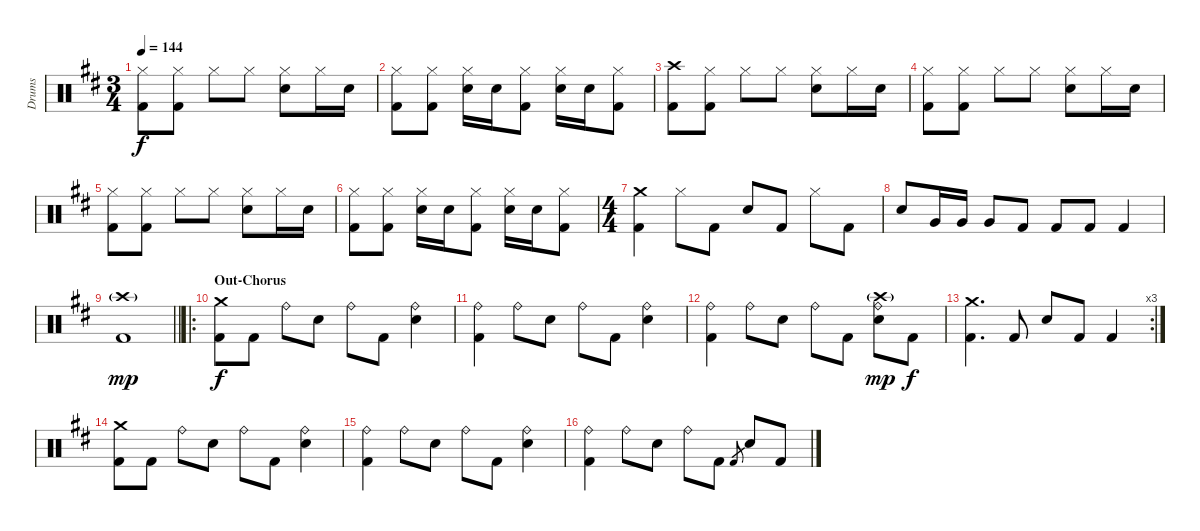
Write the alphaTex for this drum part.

\track ("Drums" "Drums") {instrument percussion}
\staff {score}
\articulation defaults
\ts (3 4)
\tempo 144
\clef neutral
\ks d
("Hi-Hat (closed)" "Kick (hit) 2").8{dy f} ("Hi-Hat (closed)" "Kick (hit) 2").8 "Hi-Hat (closed)".8 "Hi-Hat (closed)".8 ("Hi-Hat (closed)" "Snare (hit) 2").8 "Hi-Hat (closed)".16 "Snare (hit) 2".16 |
("Hi-Hat (closed)" "Kick (hit) 2").8 ("Hi-Hat (closed)" "Kick (hit) 2").8 ("Hi-Hat (closed)" "Snare (hit) 2").16 "Snare (hit) 2".16 ("Hi-Hat (closed)" "Kick (hit) 2").8 ("Hi-Hat (closed)" "Snare (hit) 2").16 "Snare (hit) 2".16 ("Hi-Hat (closed)" "Kick (hit) 2").8 |
("Crash high (hit)" "Kick (hit) 2").8 ("Hi-Hat (closed)" "Kick (hit) 2").8 "Hi-Hat (closed)".8 "Hi-Hat (closed)".8 ("Hi-Hat (closed)" "Snare (hit) 2").8 "Hi-Hat (closed)".16 "Snare (hit) 2".16 |
("Hi-Hat (closed)" "Kick (hit) 2").8 ("Hi-Hat (closed)" "Kick (hit) 2").8 "Hi-Hat (closed)".8 "Hi-Hat (closed)".8 ("Hi-Hat (closed)" "Snare (hit) 2").8 "Hi-Hat (closed)".16 "Snare (hit) 2".16 |
("Hi-Hat (closed)" "Kick (hit) 2").8 ("Hi-Hat (closed)" "Kick (hit) 2").8 "Hi-Hat (closed)".8 "Hi-Hat (closed)".8 ("Hi-Hat (closed)" "Snare (hit) 2").8 "Hi-Hat (closed)".16 "Snare (hit) 2".16 |
("Hi-Hat (closed)" "Kick (hit) 2").8 ("Hi-Hat (closed)" "Kick (hit) 2").8 ("Hi-Hat (closed)" "Snare (hit) 2").16 "Snare (hit) 2".16 ("Hi-Hat (closed)" "Kick (hit) 2").8 ("Hi-Hat (closed)" "Snare (hit) 2").16 "Snare (hit) 2".16 ("Hi-Hat (closed)" "Kick (hit) 2").8 |
\ts (4 4)
("Crash medium (hit)" "Kick (hit) 2").4 "Hi-Hat (closed)".8 "Kick (hit) 2".8 "Snare (hit) 2".8 "Kick (hit) 2".8 "Hi-Hat (closed)".8 "Kick (hit) 2".8 |
"Snare (hit) 2".8 "Very Low Tom (hit)".16 "Very Low Tom (hit)".16 "Very Low Tom (hit)".8 "Kick (hit) 2".8 "Kick (hit) 2".8 "Kick (hit) 2".8 "Kick (hit) 2".4 |
\barLineRight lightlight
("Crash high (hit)"{g} "Kick (hit) 2").1{dy mp} |
\ro
\section ("" "Out-Chorus")
("Crash medium (hit)" "Kick (hit) 2").8{dy f} "Kick (hit) 2".8 "Ride (bell)".8 "Snare (hit) 2".8 "Ride (bell)".8 "Kick (hit) 2".8 ("Ride (bell)" "Snare (hit) 2").4 |
("Ride (bell)" "Kick (hit) 2").4 "Ride (bell)".8 "Snare (hit) 2".8 "Ride (bell)".8 "Kick (hit) 2".8 ("Ride (bell)" "Snare (hit) 2").4 |
("Ride (bell)" "Kick (hit) 2").4 "Ride (bell)".8 "Snare (hit) 2".8 "Ride (bell)".8 "Kick (hit) 2".8 ("Crash high (hit)"{g} "Ride (bell)" "Snare (hit) 2").8{dy mp} "Kick (hit) 2".8{dy f} |
\rc 3
("Crash medium (hit)" "Kick (hit) 2").4{d} "Kick (hit) 2".8 "Snare (hit) 2".8 "Kick (hit) 2".8 "Kick (hit) 2".4 |
("Crash medium (hit)" "Kick (hit) 2").8 "Kick (hit) 2".8 "Ride (bell)".8 "Snare (hit) 2".8 "Ride (bell)".8 "Kick (hit) 2".8 ("Ride (bell)" "Snare (hit) 2").4 |
("Ride (bell)" "Kick (hit) 2").4 "Ride (bell)".8 "Snare (hit) 2".8 "Ride (bell)".8 "Kick (hit) 2".8 ("Ride (bell)" "Snare (hit) 2").4 |
("Ride (bell)" "Kick (hit) 2").4 "Ride (bell)".8 "Snare (hit) 2".8 "Ride (bell)".8 "Kick (hit) 2".8 "Kick (hit) 2".8{gr} "Snare (hit) 2".8 "Kick (hit) 2".8
